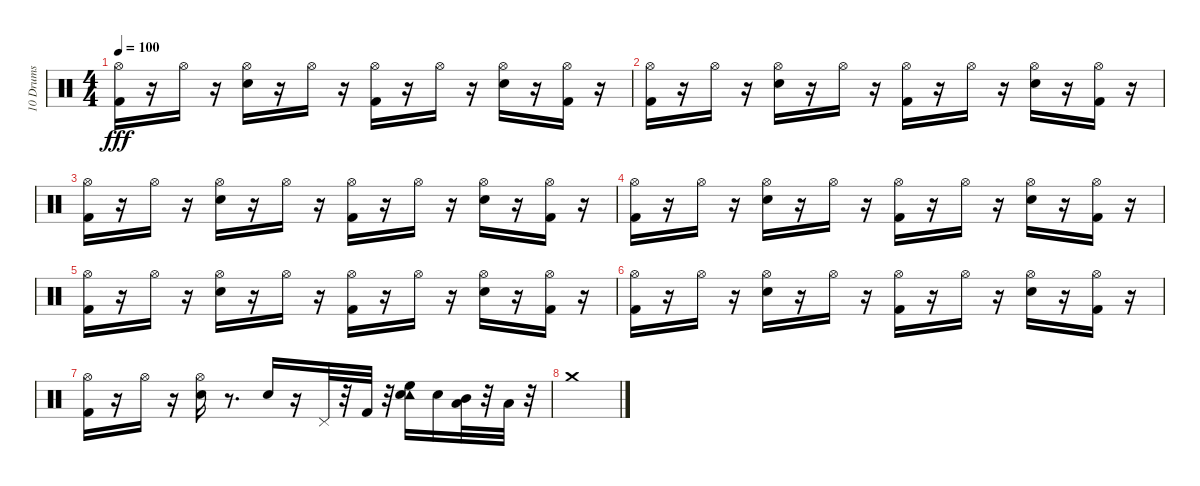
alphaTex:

\track ("10 Drums" "10 Drums") {instrument percussion}
\staff {score}
\articulation defaults
\ts (4 4)
\tempo 100
\clef neutral
\ks c
("Hi-Hat (open)" "Kick (hit) 2").16{dy fff} r.16 "Hi-Hat (open)".16 r.16 ("Hi-Hat (open)" "Snare (hit) 2").16 r.16 "Hi-Hat (open)".16 r.16 ("Hi-Hat (open)" "Kick (hit) 2").16 r.16 "Hi-Hat (open)".16 r.16 ("Hi-Hat (open)" "Snare (hit) 2").16 r.16 ("Hi-Hat (open)" "Kick (hit) 2").16 r.16 |
("Hi-Hat (open)" "Kick (hit) 2").16 r.16 "Hi-Hat (open)".16 r.16 ("Hi-Hat (open)" "Snare (hit) 2").16 r.16 "Hi-Hat (open)".16 r.16 ("Hi-Hat (open)" "Kick (hit) 2").16 r.16 "Hi-Hat (open)".16 r.16 ("Hi-Hat (open)" "Snare (hit) 2").16 r.16 ("Hi-Hat (open)" "Kick (hit) 2").16 r.16 |
("Hi-Hat (open)" "Kick (hit) 2").16 r.16 "Hi-Hat (open)".16 r.16 ("Hi-Hat (open)" "Snare (hit) 2").16 r.16 "Hi-Hat (open)".16 r.16 ("Hi-Hat (open)" "Kick (hit) 2").16 r.16 "Hi-Hat (open)".16 r.16 ("Hi-Hat (open)" "Snare (hit) 2").16 r.16 ("Hi-Hat (open)" "Kick (hit) 2").16 r.16 |
("Hi-Hat (open)" "Kick (hit) 2").16 r.16 "Hi-Hat (open)".16 r.16 ("Hi-Hat (open)" "Snare (hit) 2").16 r.16 "Hi-Hat (open)".16 r.16 ("Hi-Hat (open)" "Kick (hit) 2").16 r.16 "Hi-Hat (open)".16 r.16 ("Hi-Hat (open)" "Snare (hit) 2").16 r.16 ("Hi-Hat (open)" "Kick (hit) 2").16 r.16 |
("Hi-Hat (open)" "Kick (hit) 2").16 r.16 "Hi-Hat (open)".16 r.16 ("Hi-Hat (open)" "Snare (hit) 2").16 r.16 "Hi-Hat (open)".16 r.16 ("Hi-Hat (open)" "Kick (hit) 2").16 r.16 "Hi-Hat (open)".16 r.16 ("Hi-Hat (open)" "Snare (hit) 2").16 r.16 ("Hi-Hat (open)" "Kick (hit) 2").16 r.16 |
("Hi-Hat (open)" "Kick (hit) 2").16 r.16 "Hi-Hat (open)".16 r.16 ("Hi-Hat (open)" "Snare (hit) 2").16 r.16 "Hi-Hat (open)".16 r.16 ("Hi-Hat (open)" "Kick (hit) 2").16 r.16 "Hi-Hat (open)".16 r.16 ("Hi-Hat (open)" "Snare (hit) 2").16 r.16 ("Hi-Hat (open)" "Kick (hit) 2").16 r.16 |
("Hi-Hat (open)" "Kick (hit) 2").16 r.16 "Hi-Hat (open)".16 r.16 ("Hi-Hat (open)" "Snare (hit) 2").16 r.8{d} "Electric Snare (hit)".16 r.16 "Pedal Hi-Hat (hit)".32 r.32 "Kick (hit) 2".32 r.32 ("Tambourine (hit)" "Electric Snare (hit)" "High Floor Tom (hit)").16 "Electric Snare (hit)".16 ("Mid Tom (hit)" "Low Floor Tom (hit)").32 r.32 "Low Floor Tom (hit)".32 r.32 |
"Crash medium (hit)".1
